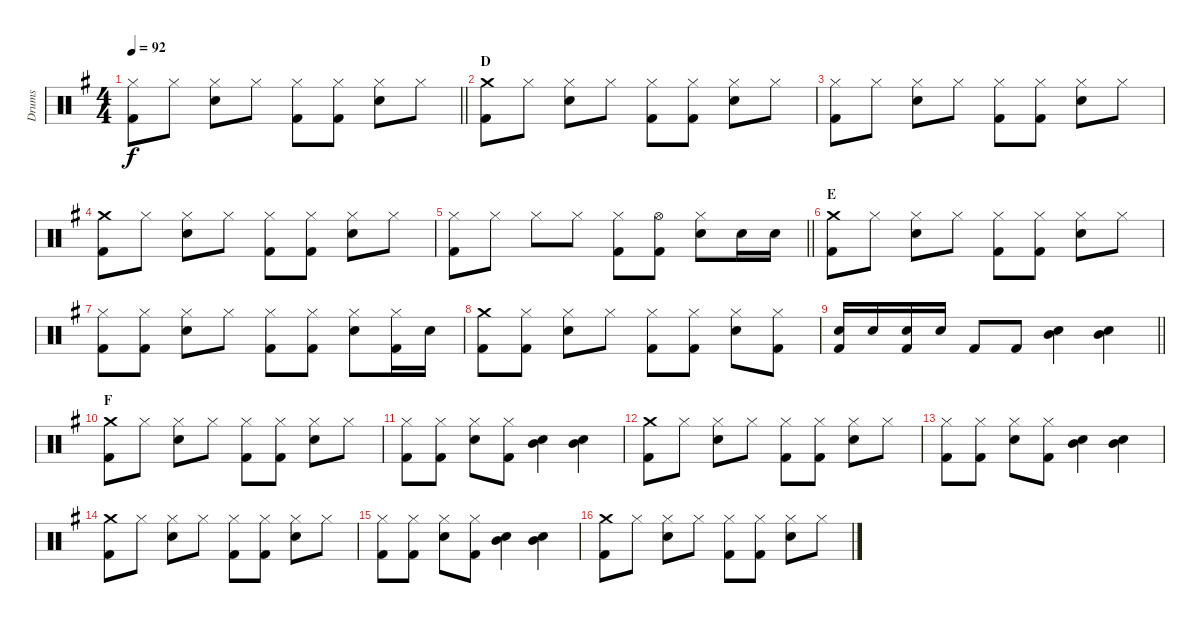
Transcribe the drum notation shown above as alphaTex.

\track ("Drums" "Drums") {instrument percussion}
\staff {score}
\articulation defaults
\ts (4 4)
\tempo 92
\clef neutral
\barLineRight lightlight
\ks g
("Hi-Hat (closed)" "Kick (hit) 2").8{dy f} "Hi-Hat (closed)".8 ("Hi-Hat (closed)" "Snare (hit) 2").8 "Hi-Hat (closed)".8 ("Hi-Hat (closed)" "Kick (hit) 2").8 ("Hi-Hat (closed)" "Kick (hit) 2").8 ("Hi-Hat (closed)" "Snare (hit) 2").8 "Hi-Hat (closed)".8 |
\section ("" "D")
("Crash medium (hit)" "Kick (hit) 2").8 "Hi-Hat (closed)".8 ("Hi-Hat (closed)" "Snare (hit) 2").8 "Hi-Hat (closed)".8 ("Hi-Hat (closed)" "Kick (hit) 2").8 ("Hi-Hat (closed)" "Kick (hit) 2").8 ("Hi-Hat (closed)" "Snare (hit) 2").8 "Hi-Hat (closed)".8 |
("Hi-Hat (closed)" "Kick (hit) 2").8 "Hi-Hat (closed)".8 ("Hi-Hat (closed)" "Snare (hit) 2").8 "Hi-Hat (closed)".8 ("Hi-Hat (closed)" "Kick (hit) 2").8 ("Hi-Hat (closed)" "Kick (hit) 2").8 ("Hi-Hat (closed)" "Snare (hit) 2").8 "Hi-Hat (closed)".8 |
("Crash medium (hit)" "Kick (hit) 2").8 "Hi-Hat (closed)".8 ("Hi-Hat (closed)" "Snare (hit) 2").8 "Hi-Hat (closed)".8 ("Hi-Hat (closed)" "Kick (hit) 2").8 ("Hi-Hat (closed)" "Kick (hit) 2").8 ("Hi-Hat (closed)" "Snare (hit) 2").8 "Hi-Hat (closed)".8 |
\barLineRight lightlight
("Hi-Hat (closed)" "Kick (hit) 2").8 "Hi-Hat (closed)".8 "Hi-Hat (closed)".8 "Hi-Hat (closed)".8 ("Hi-Hat (closed)" "Kick (hit) 2").8 ("Hi-Hat (open)" "Kick (hit) 2").8 ("Hi-Hat (closed)" "Snare (hit) 2").8 "Snare (hit) 2".16 "Snare (hit) 2".16 |
\section ("" "E")
("Crash medium (hit)" "Kick (hit) 2").8 "Hi-Hat (closed)".8 ("Hi-Hat (closed)" "Snare (hit) 2").8 "Hi-Hat (closed)".8 ("Hi-Hat (closed)" "Kick (hit) 2").8 ("Hi-Hat (closed)" "Kick (hit) 2").8 ("Hi-Hat (closed)" "Snare (hit) 2").8 "Hi-Hat (closed)".8 |
("Hi-Hat (closed)" "Kick (hit) 2").8 ("Hi-Hat (closed)" "Kick (hit) 2").8 ("Hi-Hat (closed)" "Snare (hit) 2").8 "Hi-Hat (closed)".8 ("Hi-Hat (closed)" "Kick (hit) 2").8 ("Hi-Hat (closed)" "Kick (hit) 2").8 ("Hi-Hat (closed)" "Snare (hit) 2").8 ("Hi-Hat (closed)" "Kick (hit) 2").16 "Snare (hit) 2".16 |
("Crash medium (hit)" "Kick (hit) 2").8 ("Hi-Hat (closed)" "Kick (hit) 2").8 ("Hi-Hat (closed)" "Snare (hit) 2").8 "Hi-Hat (closed)".8 ("Hi-Hat (closed)" "Kick (hit) 2").8 ("Hi-Hat (closed)" "Kick (hit) 2").8 ("Hi-Hat (closed)" "Snare (hit) 2").8 ("Hi-Hat (closed)" "Kick (hit) 2").8 |
\barLineRight lightlight
("Snare (hit) 2" "Kick (hit) 2").16 "Snare (hit) 2".16 ("Snare (hit) 2" "Kick (hit) 2").16 "Snare (hit) 2".16 "Kick (hit) 2".8 "Kick (hit) 2".8 ("Mid Tom (hit)" "Snare (hit) 2").4 ("Mid Tom (hit)" "Snare (hit) 2").4 |
\section ("" "F")
("Crash medium (hit)" "Kick (hit) 2").8 "Hi-Hat (closed)".8 ("Hi-Hat (closed)" "Snare (hit) 2").8 "Hi-Hat (closed)".8 ("Hi-Hat (closed)" "Kick (hit) 2").8 ("Hi-Hat (closed)" "Kick (hit) 2").8 ("Hi-Hat (closed)" "Snare (hit) 2").8 "Hi-Hat (closed)".8 |
("Hi-Hat (closed)" "Kick (hit) 2").8 ("Hi-Hat (closed)" "Kick (hit) 2").8 ("Hi-Hat (closed)" "Snare (hit) 2").8 ("Hi-Hat (closed)" "Kick (hit) 2").8 ("Mid Tom (hit)" "Snare (hit) 2").4 ("Mid Tom (hit)" "Snare (hit) 2").4 |
("Crash medium (hit)" "Kick (hit) 2").8 "Hi-Hat (closed)".8 ("Hi-Hat (closed)" "Snare (hit) 2").8 "Hi-Hat (closed)".8 ("Hi-Hat (closed)" "Kick (hit) 2").8 ("Hi-Hat (closed)" "Kick (hit) 2").8 ("Hi-Hat (closed)" "Snare (hit) 2").8 "Hi-Hat (closed)".8 |
("Hi-Hat (closed)" "Kick (hit) 2").8 ("Hi-Hat (closed)" "Kick (hit) 2").8 ("Hi-Hat (closed)" "Snare (hit) 2").8 ("Hi-Hat (closed)" "Kick (hit) 2").8 ("Mid Tom (hit)" "Snare (hit) 2").4 ("Mid Tom (hit)" "Snare (hit) 2").4 |
("Crash medium (hit)" "Kick (hit) 2").8 "Hi-Hat (closed)".8 ("Hi-Hat (closed)" "Snare (hit) 2").8 "Hi-Hat (closed)".8 ("Hi-Hat (closed)" "Kick (hit) 2").8 ("Hi-Hat (closed)" "Kick (hit) 2").8 ("Hi-Hat (closed)" "Snare (hit) 2").8 "Hi-Hat (closed)".8 |
("Hi-Hat (closed)" "Kick (hit) 2").8 ("Hi-Hat (closed)" "Kick (hit) 2").8 ("Hi-Hat (closed)" "Snare (hit) 2").8 ("Hi-Hat (closed)" "Kick (hit) 2").8 ("Mid Tom (hit)" "Snare (hit) 2").4 ("Mid Tom (hit)" "Snare (hit) 2").4 |
("Crash medium (hit)" "Kick (hit) 2").8 "Hi-Hat (closed)".8 ("Hi-Hat (closed)" "Snare (hit) 2").8 "Hi-Hat (closed)".8 ("Hi-Hat (closed)" "Kick (hit) 2").8 ("Hi-Hat (closed)" "Kick (hit) 2").8 ("Hi-Hat (closed)" "Snare (hit) 2").8 "Hi-Hat (closed)".8
